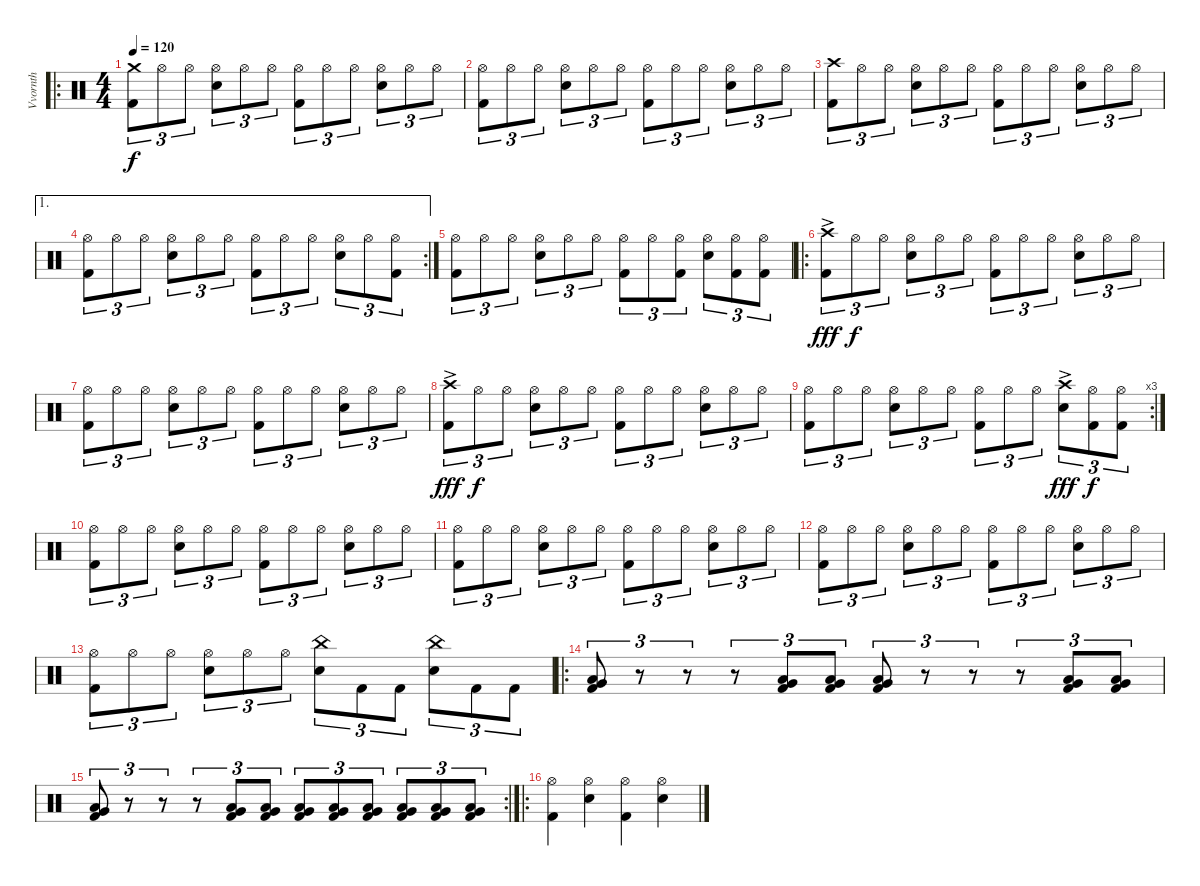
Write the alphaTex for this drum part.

\track ("Vvornth" "Vvornth") {instrument percussion}
\staff {score}
\articulation defaults
\ro
\ts (4 4)
\tempo 120
\clef neutral
\ks c
("Crash medium (hit)" "Kick (hit) 2").8{tu (3 2) dy f} "Hi-Hat (open)".8{tu (3 2)} "Hi-Hat (open)".8{tu (3 2)} ("Hi-Hat (open)" "Snare (hit) 2").8{tu (3 2)} "Hi-Hat (open)".8{tu (3 2)} "Hi-Hat (open)".8{tu (3 2)} ("Hi-Hat (open)" "Kick (hit) 2").8{tu (3 2)} "Hi-Hat (open)".8{tu (3 2)} "Hi-Hat (open)".8{tu (3 2)} ("Hi-Hat (open)" "Snare (hit) 2").8{tu (3 2)} "Hi-Hat (open)".8{tu (3 2)} "Hi-Hat (open)".8{tu (3 2)} |
("Hi-Hat (open)" "Kick (hit) 2").8{tu (3 2)} "Hi-Hat (open)".8{tu (3 2)} "Hi-Hat (open)".8{tu (3 2)} ("Hi-Hat (open)" "Snare (hit) 2").8{tu (3 2)} "Hi-Hat (open)".8{tu (3 2)} "Hi-Hat (open)".8{tu (3 2)} ("Hi-Hat (open)" "Kick (hit) 2").8{tu (3 2)} "Hi-Hat (open)".8{tu (3 2)} "Hi-Hat (open)".8{tu (3 2)} ("Hi-Hat (open)" "Snare (hit) 2").8{tu (3 2)} "Hi-Hat (open)".8{tu (3 2)} "Hi-Hat (open)".8{tu (3 2)} |
("Crash high (hit)" "Kick (hit) 2").8{tu (3 2)} "Hi-Hat (open)".8{tu (3 2)} "Hi-Hat (open)".8{tu (3 2)} ("Hi-Hat (open)" "Snare (hit) 2").8{tu (3 2)} "Hi-Hat (open)".8{tu (3 2)} "Hi-Hat (open)".8{tu (3 2)} ("Hi-Hat (open)" "Kick (hit) 2").8{tu (3 2)} "Hi-Hat (open)".8{tu (3 2)} "Hi-Hat (open)".8{tu (3 2)} ("Hi-Hat (open)" "Snare (hit) 2").8{tu (3 2)} "Hi-Hat (open)".8{tu (3 2)} "Hi-Hat (open)".8{tu (3 2)} |
\ae 1
\rc 2
("Hi-Hat (open)" "Kick (hit) 2").8{tu (3 2)} "Hi-Hat (open)".8{tu (3 2)} "Hi-Hat (open)".8{tu (3 2)} ("Hi-Hat (open)" "Snare (hit) 2").8{tu (3 2)} "Hi-Hat (open)".8{tu (3 2)} "Hi-Hat (open)".8{tu (3 2)} ("Hi-Hat (open)" "Kick (hit) 2").8{tu (3 2)} "Hi-Hat (open)".8{tu (3 2)} "Hi-Hat (open)".8{tu (3 2)} ("Hi-Hat (open)" "Snare (hit) 2").8{tu (3 2)} "Hi-Hat (open)".8{tu (3 2)} ("Hi-Hat (open)" "Kick (hit) 2").8{tu (3 2)} |
("Hi-Hat (open)" "Kick (hit) 2").8{tu (3 2)} "Hi-Hat (open)".8{tu (3 2)} "Hi-Hat (open)".8{tu (3 2)} ("Hi-Hat (open)" "Snare (hit) 2").8{tu (3 2)} "Hi-Hat (open)".8{tu (3 2)} "Hi-Hat (open)".8{tu (3 2)} ("Hi-Hat (open)" "Kick (hit) 2").8{tu (3 2)} "Hi-Hat (open)".8{tu (3 2)} ("Hi-Hat (open)" "Kick (hit) 2").8{tu (3 2)} ("Hi-Hat (open)" "Snare (hit) 2").8{tu (3 2)} ("Hi-Hat (open)" "Kick (hit) 2").8{tu (3 2)} ("Hi-Hat (open)" "Kick (hit) 2").8{tu (3 2)} |
\ro
("Crash high (hit)"{ac} "Kick (hit) 2").8{tu (3 2) dy fff} "Hi-Hat (open)".8{tu (3 2) dy f} "Hi-Hat (open)".8{tu (3 2)} ("Hi-Hat (open)" "Snare (hit) 2").8{tu (3 2)} "Hi-Hat (open)".8{tu (3 2)} "Hi-Hat (open)".8{tu (3 2)} ("Hi-Hat (open)" "Kick (hit) 2").8{tu (3 2)} "Hi-Hat (open)".8{tu (3 2)} "Hi-Hat (open)".8{tu (3 2)} ("Hi-Hat (open)" "Snare (hit) 2").8{tu (3 2)} "Hi-Hat (open)".8{tu (3 2)} "Hi-Hat (open)".8{tu (3 2)} |
("Hi-Hat (open)" "Kick (hit) 2").8{tu (3 2)} "Hi-Hat (open)".8{tu (3 2)} "Hi-Hat (open)".8{tu (3 2)} ("Hi-Hat (open)" "Snare (hit) 2").8{tu (3 2)} "Hi-Hat (open)".8{tu (3 2)} "Hi-Hat (open)".8{tu (3 2)} ("Hi-Hat (open)" "Kick (hit) 2").8{tu (3 2)} "Hi-Hat (open)".8{tu (3 2)} "Hi-Hat (open)".8{tu (3 2)} ("Hi-Hat (open)" "Snare (hit) 2").8{tu (3 2)} "Hi-Hat (open)".8{tu (3 2)} "Hi-Hat (open)".8{tu (3 2)} |
("Crash high (hit)"{ac} "Kick (hit) 2").8{tu (3 2) dy fff} "Hi-Hat (open)".8{tu (3 2) dy f} "Hi-Hat (open)".8{tu (3 2)} ("Hi-Hat (open)" "Snare (hit) 2").8{tu (3 2)} "Hi-Hat (open)".8{tu (3 2)} "Hi-Hat (open)".8{tu (3 2)} ("Hi-Hat (open)" "Kick (hit) 2").8{tu (3 2)} "Hi-Hat (open)".8{tu (3 2)} "Hi-Hat (open)".8{tu (3 2)} ("Hi-Hat (open)" "Snare (hit) 2").8{tu (3 2)} "Hi-Hat (open)".8{tu (3 2)} "Hi-Hat (open)".8{tu (3 2)} |
\rc 3
("Hi-Hat (open)" "Kick (hit) 2").8{tu (3 2)} "Hi-Hat (open)".8{tu (3 2)} "Hi-Hat (open)".8{tu (3 2)} ("Hi-Hat (open)" "Snare (hit) 2").8{tu (3 2)} "Hi-Hat (open)".8{tu (3 2)} "Hi-Hat (open)".8{tu (3 2)} ("Hi-Hat (open)" "Kick (hit) 2").8{tu (3 2)} "Hi-Hat (open)".8{tu (3 2)} "Hi-Hat (open)".8{tu (3 2)} ("Crash high (hit)"{ac} "Snare (hit) 2").8{tu (3 2) dy fff} ("Hi-Hat (open)" "Kick (hit) 2").8{tu (3 2) dy f} ("Hi-Hat (open)" "Kick (hit) 2").8{tu (3 2)} |
("Hi-Hat (open)" "Kick (hit) 2").8{tu (3 2)} "Hi-Hat (open)".8{tu (3 2)} "Hi-Hat (open)".8{tu (3 2)} ("Hi-Hat (open)" "Snare (hit) 2").8{tu (3 2)} "Hi-Hat (open)".8{tu (3 2)} "Hi-Hat (open)".8{tu (3 2)} ("Hi-Hat (open)" "Kick (hit) 2").8{tu (3 2)} "Hi-Hat (open)".8{tu (3 2)} "Hi-Hat (open)".8{tu (3 2)} ("Hi-Hat (open)" "Snare (hit) 2").8{tu (3 2)} "Hi-Hat (open)".8{tu (3 2)} "Hi-Hat (open)".8{tu (3 2)} |
("Hi-Hat (open)" "Kick (hit) 2").8{tu (3 2)} "Hi-Hat (open)".8{tu (3 2)} "Hi-Hat (open)".8{tu (3 2)} ("Hi-Hat (open)" "Snare (hit) 2").8{tu (3 2)} "Hi-Hat (open)".8{tu (3 2)} "Hi-Hat (open)".8{tu (3 2)} ("Hi-Hat (open)" "Kick (hit) 2").8{tu (3 2)} "Hi-Hat (open)".8{tu (3 2)} "Hi-Hat (open)".8{tu (3 2)} ("Hi-Hat (open)" "Snare (hit) 2").8{tu (3 2)} "Hi-Hat (open)".8{tu (3 2)} "Hi-Hat (open)".8{tu (3 2)} |
("Hi-Hat (open)" "Kick (hit) 2").8{tu (3 2)} "Hi-Hat (open)".8{tu (3 2)} "Hi-Hat (open)".8{tu (3 2)} ("Hi-Hat (open)" "Snare (hit) 2").8{tu (3 2)} "Hi-Hat (open)".8{tu (3 2)} "Hi-Hat (open)".8{tu (3 2)} ("Hi-Hat (open)" "Kick (hit) 2").8{tu (3 2)} "Hi-Hat (open)".8{tu (3 2)} "Hi-Hat (open)".8{tu (3 2)} ("Hi-Hat (open)" "Snare (hit) 2").8{tu (3 2)} "Hi-Hat (open)".8{tu (3 2)} "Hi-Hat (open)".8{tu (3 2)} |
("Hi-Hat (open)" "Kick (hit) 2").8{tu (3 2)} "Hi-Hat (open)".8{tu (3 2)} "Hi-Hat (open)".8{tu (3 2)} ("Hi-Hat (open)" "Snare (hit) 2").8{tu (3 2)} "Hi-Hat (open)".8{tu (3 2)} "Hi-Hat (open)".8{tu (3 2)} ("China (hit)" "Snare (hit) 2").8{tu (3 2)} "Kick (hit) 2".8{tu (3 2)} "Kick (hit) 2".8{tu (3 2)} ("China (hit)" "Snare (hit) 2").8{tu (3 2)} "Kick (hit) 2".8{tu (3 2)} "Kick (hit) 2".8{tu (3 2)} |
\ro
("Kick (hit) 2" "Very Low Tom (hit)" "Low Floor Tom (hit)").8{tu (3 2)} r.8{tu (3 2)} r.8{tu (3 2)} r.8{tu (3 2)} ("Kick (hit) 2" "Very Low Tom (hit)" "Low Floor Tom (hit)").8{tu (3 2)} ("Kick (hit) 2" "Very Low Tom (hit)" "Low Floor Tom (hit)").8{tu (3 2)} ("Kick (hit) 2" "Very Low Tom (hit)" "Low Floor Tom (hit)").8{tu (3 2)} r.8{tu (3 2)} r.8{tu (3 2)} r.8{tu (3 2)} ("Kick (hit) 2" "Very Low Tom (hit)" "Low Floor Tom (hit)").8{tu (3 2)} ("Kick (hit) 2" "Very Low Tom (hit)" "Low Floor Tom (hit)").8{tu (3 2)} |
\rc 2
("Kick (hit) 2" "Very Low Tom (hit)" "Low Floor Tom (hit)").8{tu (3 2)} r.8{tu (3 2)} r.8{tu (3 2)} r.8{tu (3 2)} ("Kick (hit) 2" "Very Low Tom (hit)" "Low Floor Tom (hit)").8{tu (3 2)} ("Kick (hit) 2" "Very Low Tom (hit)" "Low Floor Tom (hit)").8{tu (3 2)} ("Kick (hit) 2" "Very Low Tom (hit)" "Low Floor Tom (hit)").8{tu (3 2)} ("Kick (hit) 2" "Very Low Tom (hit)" "Low Floor Tom (hit)").8{tu (3 2)} ("Kick (hit) 2" "Very Low Tom (hit)" "Low Floor Tom (hit)").8{tu (3 2)} ("Kick (hit) 2" "Very Low Tom (hit)" "Low Floor Tom (hit)").8{tu (3 2)} ("Kick (hit) 2" "Very Low Tom (hit)" "Low Floor Tom (hit)").8{tu (3 2)} ("Kick (hit) 2" "Very Low Tom (hit)" "Low Floor Tom (hit)").8{tu (3 2)} |
\ro
("Hi-Hat (open)" "Kick (hit) 2").4 ("Hi-Hat (open)" "Snare (hit) 2").4 ("Hi-Hat (open)" "Kick (hit) 2").4 ("Hi-Hat (open)" "Snare (hit) 2").4
